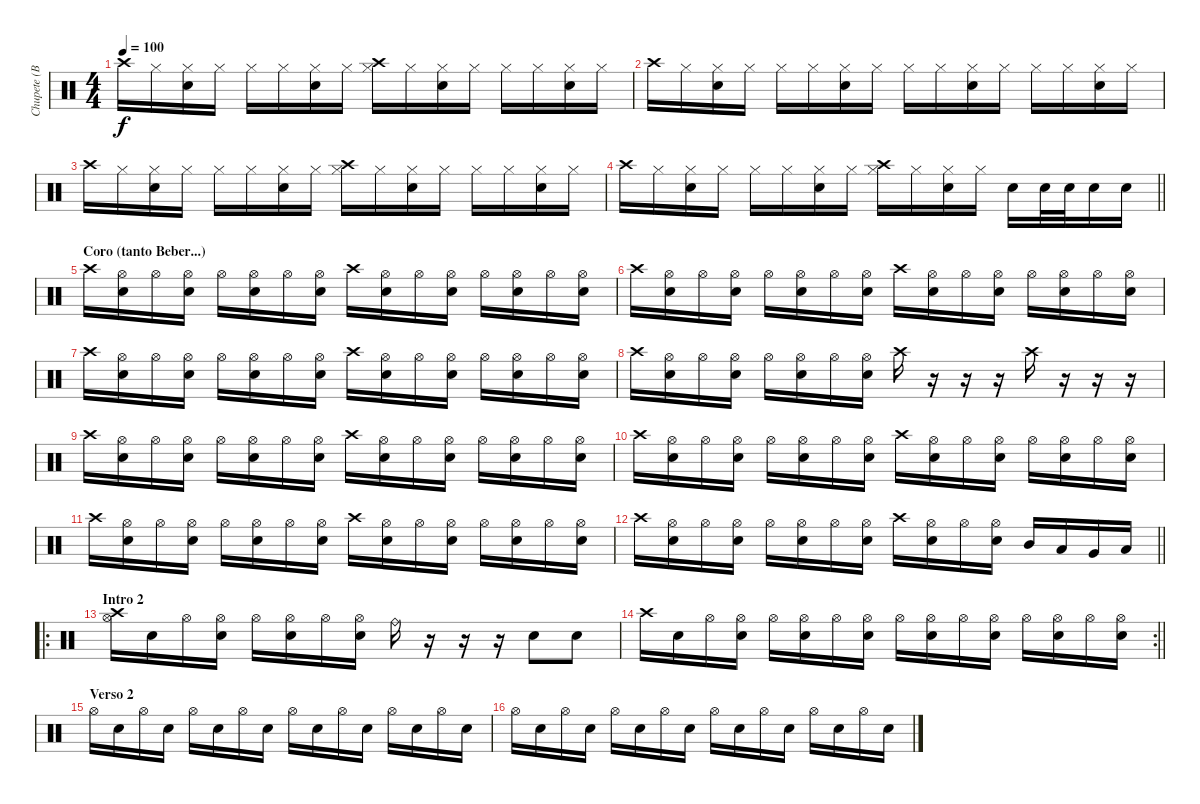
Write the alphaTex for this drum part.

\track ("Chupete (Bateria)" "Chupete (B") {instrument percussion}
\staff {score}
\articulation defaults
\ts (4 4)
\tempo 100
\clef neutral
\ks c "Crash high (hit)".16{dy f} "Hi-Hat (closed)".16
("Hi-Hat (closed)" "Electric Snare (hit)").16 "Hi-Hat (closed)".16 "Hi-Hat (closed)".16 "Hi-Hat (closed)".16 ("Hi-Hat (closed)" "Electric Snare (hit)").16 "Hi-Hat (closed)".16 ("Crash high (hit)" "Hi-Hat (closed)").16 "Hi-Hat (closed)".16 ("Hi-Hat (closed)" "Electric Snare (hit)").16 "Hi-Hat (closed)".16 "Hi-Hat (closed)".16 "Hi-Hat (closed)".16 ("Hi-Hat (closed)" "Electric Snare (hit)").16 "Hi-Hat (closed)".16 |
"Crash high (hit)".16 "Hi-Hat (closed)".16 ("Hi-Hat (closed)" "Electric Snare (hit)").16 "Hi-Hat (closed)".16 "Hi-Hat (closed)".16 "Hi-Hat (closed)".16 ("Hi-Hat (closed)" "Electric Snare (hit)").16 "Hi-Hat (closed)".16 "Hi-Hat (closed)".16 "Hi-Hat (closed)".16 ("Hi-Hat (closed)" "Electric Snare (hit)").16 "Hi-Hat (closed)".16 "Hi-Hat (closed)".16 "Hi-Hat (closed)".16 ("Hi-Hat (closed)" "Electric Snare (hit)").16 "Hi-Hat (closed)".16 |
"Crash high (hit)".16 "Hi-Hat (closed)".16 ("Hi-Hat (closed)" "Electric Snare (hit)").16 "Hi-Hat (closed)".16 "Hi-Hat (closed)".16 "Hi-Hat (closed)".16 ("Hi-Hat (closed)" "Electric Snare (hit)").16 "Hi-Hat (closed)".16 ("Crash high (hit)" "Hi-Hat (closed)").16 "Hi-Hat (closed)".16 ("Hi-Hat (closed)" "Electric Snare (hit)").16 "Hi-Hat (closed)".16 "Hi-Hat (closed)".16 "Hi-Hat (closed)".16 ("Hi-Hat (closed)" "Electric Snare (hit)").16 "Hi-Hat (closed)".16 |
\barLineRight lightlight "Crash high (hit)".16 "Hi-Hat (closed)".16
("Hi-Hat (closed)" "Electric Snare (hit)").16 "Hi-Hat (closed)".16 "Hi-Hat (closed)".16 "Hi-Hat (closed)".16 ("Hi-Hat (closed)" "Electric Snare (hit)").16 "Hi-Hat (closed)".16 ("Crash high (hit)" "Hi-Hat (closed)").16 "Hi-Hat (closed)".16 ("Hi-Hat (closed)" "Electric Snare (hit)").16 "Hi-Hat (closed)".16 "Electric Snare (hit)".16 "Electric Snare (hit)".32 "Electric Snare (hit)".32 "Electric Snare (hit)".16 "Electric Snare (hit)".16 |
\section ("" "Coro (tanto Beber...)")
"Crash high (hit)".16 ("Hi-Hat (open)" "Electric Snare (hit)").16 "Hi-Hat (open)".16 ("Hi-Hat (open)" "Electric Snare (hit)").16 "Hi-Hat (open)".16 ("Hi-Hat (open)" "Electric Snare (hit)").16 "Hi-Hat (open)".16 ("Hi-Hat (open)" "Electric Snare (hit)").16 "Crash high (hit)".16 ("Hi-Hat (open)" "Electric Snare (hit)").16 "Hi-Hat (open)".16 ("Hi-Hat (open)" "Electric Snare (hit)").16 "Hi-Hat (open)".16 ("Hi-Hat (open)" "Electric Snare (hit)").16 "Hi-Hat (open)".16 ("Hi-Hat (open)" "Electric Snare (hit)").16 |
"Crash high (hit)".16 ("Hi-Hat (open)" "Electric Snare (hit)").16 "Hi-Hat (open)".16 ("Hi-Hat (open)" "Electric Snare (hit)").16 "Hi-Hat (open)".16 ("Hi-Hat (open)" "Electric Snare (hit)").16 "Hi-Hat (open)".16 ("Hi-Hat (open)" "Electric Snare (hit)").16 "Crash high (hit)".16 ("Hi-Hat (open)" "Electric Snare (hit)").16 "Hi-Hat (open)".16 ("Hi-Hat (open)" "Electric Snare (hit)").16 "Hi-Hat (open)".16 ("Hi-Hat (open)" "Electric Snare (hit)").16 "Hi-Hat (open)".16 ("Hi-Hat (open)" "Electric Snare (hit)").16 |
"Crash high (hit)".16 ("Hi-Hat (open)" "Electric Snare (hit)").16 "Hi-Hat (open)".16 ("Hi-Hat (open)" "Electric Snare (hit)").16 "Hi-Hat (open)".16 ("Hi-Hat (open)" "Electric Snare (hit)").16 "Hi-Hat (open)".16 ("Hi-Hat (open)" "Electric Snare (hit)").16 "Crash high (hit)".16 ("Hi-Hat (open)" "Electric Snare (hit)").16 "Hi-Hat (open)".16 ("Hi-Hat (open)" "Electric Snare (hit)").16 "Hi-Hat (open)".16 ("Hi-Hat (open)" "Electric Snare (hit)").16 "Hi-Hat (open)".16 ("Hi-Hat (open)" "Electric Snare (hit)").16 |
"Crash high (hit)".16 ("Hi-Hat (open)" "Electric Snare (hit)").16 "Hi-Hat (open)".16 ("Hi-Hat (open)" "Electric Snare (hit)").16 "Hi-Hat (open)".16 ("Hi-Hat (open)" "Electric Snare (hit)").16 "Hi-Hat (open)".16 ("Hi-Hat (open)" "Electric Snare (hit)").16 "Crash high (hit)".16 r.16 r.16 r.16 "Crash high (hit)".16 r.16 r.16 r.16 |
"Crash high (hit)".16 ("Hi-Hat (open)" "Electric Snare (hit)").16 "Hi-Hat (open)".16 ("Hi-Hat (open)" "Electric Snare (hit)").16 "Hi-Hat (open)".16 ("Hi-Hat (open)" "Electric Snare (hit)").16 "Hi-Hat (open)".16 ("Hi-Hat (open)" "Electric Snare (hit)").16 "Crash high (hit)".16 ("Hi-Hat (open)" "Electric Snare (hit)").16 "Hi-Hat (open)".16 ("Hi-Hat (open)" "Electric Snare (hit)").16 "Hi-Hat (open)".16 ("Hi-Hat (open)" "Electric Snare (hit)").16 "Hi-Hat (open)".16 ("Hi-Hat (open)" "Electric Snare (hit)").16 |
"Crash high (hit)".16 ("Hi-Hat (open)" "Electric Snare (hit)").16 "Hi-Hat (open)".16 ("Hi-Hat (open)" "Electric Snare (hit)").16 "Hi-Hat (open)".16 ("Hi-Hat (open)" "Electric Snare (hit)").16 "Hi-Hat (open)".16 ("Hi-Hat (open)" "Electric Snare (hit)").16 "Crash high (hit)".16 ("Hi-Hat (open)" "Electric Snare (hit)").16 "Hi-Hat (open)".16 ("Hi-Hat (open)" "Electric Snare (hit)").16 "Hi-Hat (open)".16 ("Hi-Hat (open)" "Electric Snare (hit)").16 "Hi-Hat (open)".16 ("Hi-Hat (open)" "Electric Snare (hit)").16 |
"Crash high (hit)".16 ("Hi-Hat (open)" "Electric Snare (hit)").16 "Hi-Hat (open)".16 ("Hi-Hat (open)" "Electric Snare (hit)").16 "Hi-Hat (open)".16 ("Hi-Hat (open)" "Electric Snare (hit)").16 "Hi-Hat (open)".16 ("Hi-Hat (open)" "Electric Snare (hit)").16 "Crash high (hit)".16 ("Hi-Hat (open)" "Electric Snare (hit)").16 "Hi-Hat (open)".16 ("Hi-Hat (open)" "Electric Snare (hit)").16 "Hi-Hat (open)".16 ("Hi-Hat (open)" "Electric Snare (hit)").16 "Hi-Hat (open)".16 ("Hi-Hat (open)" "Electric Snare (hit)").16 |
\barLineRight lightlight "Crash high (hit)".16
("Hi-Hat (open)" "Electric Snare (hit)").16 "Hi-Hat (open)".16 ("Hi-Hat (open)" "Electric Snare (hit)").16 "Hi-Hat (open)".16 ("Hi-Hat (open)" "Electric Snare (hit)").16 "Hi-Hat (open)".16 ("Hi-Hat (open)" "Electric Snare (hit)").16 "Crash high (hit)".16 ("Hi-Hat (open)" "Electric Snare (hit)").16 "Hi-Hat (open)".16 ("Hi-Hat (open)" "Electric Snare (hit)").16 "Mid Tom (hit)".16 "Low Tom (hit)".16 "Very Low Tom (hit)".16 "Low Floor Tom (hit)".16 |
\ro
\section ("" "Intro 2")
("Crash high (hit)" "Hi-Hat (open)").16 "Electric Snare (hit)".16 "Hi-Hat (open)".16 ("Hi-Hat (open)" "Electric Snare (hit)").16 "Hi-Hat (open)".16 ("Hi-Hat (open)" "Electric Snare (hit)").16 "Hi-Hat (open)".16 ("Hi-Hat (open)" "Electric Snare (hit)").16 "Ride (bell)".16 r.16 r.16 r.16 "Electric Snare (hit)".8 "Electric Snare (hit)".8 |
\rc 2
\barLineRight lightlight "Crash high (hit)".16 "Electric Snare (hit)".16 "Hi-Hat (open)".16
("Hi-Hat (open)" "Electric Snare (hit)").16 "Hi-Hat (open)".16 ("Hi-Hat (open)" "Electric Snare (hit)").16 "Hi-Hat (open)".16 ("Hi-Hat (open)" "Electric Snare (hit)").16 "Hi-Hat (open)".16 ("Hi-Hat (open)" "Electric Snare (hit)").16 "Hi-Hat (open)".16 ("Hi-Hat (open)" "Electric Snare (hit)").16 "Hi-Hat (open)".16 ("Hi-Hat (open)" "Electric Snare (hit)").16 "Hi-Hat (open)".16 ("Hi-Hat (open)" "Electric Snare (hit)").16 |
\section ("" "Verso 2")
"Hi-Hat (open)".16 "Electric Snare (hit)".16 "Hi-Hat (open)".16 "Electric Snare (hit)".16 "Hi-Hat (open)".16 "Electric Snare (hit)".16 "Hi-Hat (open)".16 "Electric Snare (hit)".16 "Hi-Hat (open)".16 "Electric Snare (hit)".16 "Hi-Hat (open)".16 "Electric Snare (hit)".16 "Hi-Hat (open)".16 "Electric Snare (hit)".16 "Hi-Hat (open)".16 "Electric Snare (hit)".16 |
"Hi-Hat (open)".16 "Electric Snare (hit)".16 "Hi-Hat (open)".16 "Electric Snare (hit)".16 "Hi-Hat (open)".16 "Electric Snare (hit)".16 "Hi-Hat (open)".16 "Electric Snare (hit)".16 "Hi-Hat (open)".16 "Electric Snare (hit)".16 "Hi-Hat (open)".16 "Electric Snare (hit)".16 "Hi-Hat (open)".16 "Electric Snare (hit)".16 "Hi-Hat (open)".16 "Electric Snare (hit)".16
